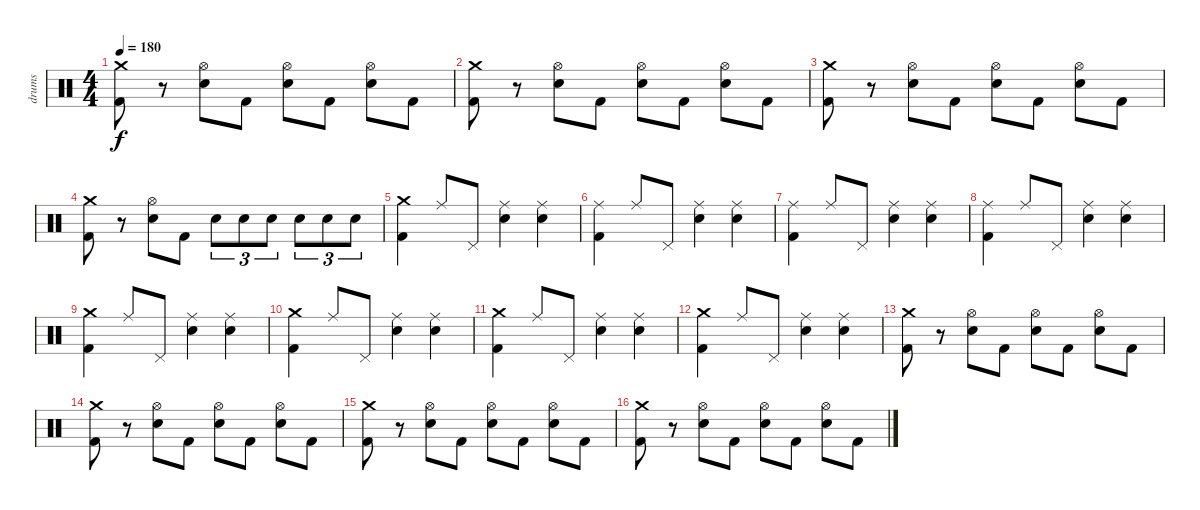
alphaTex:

\track ("drums" "drums") {instrument percussion}
\staff {score}
\articulation defaults
\ts (4 4)
\tempo 180
\clef neutral
\ks c
("Crash medium (hit)" "Kick (hit) 2").8{dy f} r.8 ("Hi-Hat (open)" "Snare (hit) 2").8 "Kick (hit) 2".8 ("Hi-Hat (open)" "Snare (hit) 2").8 "Kick (hit) 2".8 ("Hi-Hat (open)" "Snare (hit) 2").8 "Kick (hit) 2".8 |
("Crash medium (hit)" "Kick (hit) 2").8 r.8 ("Hi-Hat (open)" "Snare (hit) 2").8 "Kick (hit) 2".8 ("Hi-Hat (open)" "Snare (hit) 2").8 "Kick (hit) 2".8 ("Hi-Hat (open)" "Snare (hit) 2").8 "Kick (hit) 2".8 |
("Crash medium (hit)" "Kick (hit) 2").8 r.8 ("Hi-Hat (open)" "Snare (hit) 2").8 "Kick (hit) 2".8 ("Hi-Hat (open)" "Snare (hit) 2").8 "Kick (hit) 2".8 ("Hi-Hat (open)" "Snare (hit) 2").8 "Kick (hit) 2".8 |
("Crash medium (hit)" "Kick (hit) 2").8 r.8 ("Hi-Hat (open)" "Snare (hit) 2").8 "Kick (hit) 2".8 "Snare (hit) 2".8{tu (3 2)} "Snare (hit) 2".8{tu (3 2)} "Snare (hit) 2".8{tu (3 2)} "Snare (hit) 2".8{tu (3 2)} "Snare (hit) 2".8{tu (3 2)} "Snare (hit) 2".8{tu (3 2)} |
("Crash medium (hit)" "Kick (hit) 2").4 "Ride (middle)".8 "Pedal Hi-Hat (hit)".8 ("Ride (middle)" "Snare (hit) 2").4 ("Ride (middle)" "Snare (hit) 2").4 |
("Ride (middle)" "Kick (hit) 2").4 "Ride (middle)".8 "Pedal Hi-Hat (hit)".8 ("Ride (middle)" "Snare (hit) 2").4 ("Ride (middle)" "Snare (hit) 2").4 |
("Ride (middle)" "Kick (hit) 2").4 "Ride (middle)".8 "Pedal Hi-Hat (hit)".8 ("Ride (middle)" "Snare (hit) 2").4 ("Ride (middle)" "Snare (hit) 2").4 |
("Ride (middle)" "Kick (hit) 2").4 "Ride (middle)".8 "Pedal Hi-Hat (hit)".8 ("Ride (middle)" "Snare (hit) 2").4 ("Ride (middle)" "Snare (hit) 2").4 |
("Crash medium (hit)" "Kick (hit) 2").4 "Ride (middle)".8 "Pedal Hi-Hat (hit)".8 ("Ride (middle)" "Snare (hit) 2").4 ("Ride (middle)" "Snare (hit) 2").4 |
("Crash medium (hit)" "Kick (hit) 2").4 "Ride (middle)".8 "Pedal Hi-Hat (hit)".8 ("Ride (middle)" "Snare (hit) 2").4 ("Ride (middle)" "Snare (hit) 2").4 |
("Crash medium (hit)" "Kick (hit) 2").4 "Ride (middle)".8 "Pedal Hi-Hat (hit)".8 ("Ride (middle)" "Snare (hit) 2").4 ("Ride (middle)" "Snare (hit) 2").4 |
("Crash medium (hit)" "Kick (hit) 2").4 "Ride (middle)".8 "Pedal Hi-Hat (hit)".8 ("Ride (middle)" "Snare (hit) 2").4 ("Ride (middle)" "Snare (hit) 2").4 |
("Crash medium (hit)" "Kick (hit) 2").8 r.8 ("Hi-Hat (open)" "Snare (hit) 2").8 "Kick (hit) 2".8 ("Hi-Hat (open)" "Snare (hit) 2").8 "Kick (hit) 2".8 ("Hi-Hat (open)" "Snare (hit) 2").8 "Kick (hit) 2".8 |
("Crash medium (hit)" "Kick (hit) 2").8 r.8 ("Hi-Hat (open)" "Snare (hit) 2").8 "Kick (hit) 2".8 ("Hi-Hat (open)" "Snare (hit) 2").8 "Kick (hit) 2".8 ("Hi-Hat (open)" "Snare (hit) 2").8 "Kick (hit) 2".8 |
("Crash medium (hit)" "Kick (hit) 2").8 r.8 ("Hi-Hat (open)" "Snare (hit) 2").8 "Kick (hit) 2".8 ("Hi-Hat (open)" "Snare (hit) 2").8 "Kick (hit) 2".8 ("Hi-Hat (open)" "Snare (hit) 2").8 "Kick (hit) 2".8 |
("Crash medium (hit)" "Kick (hit) 2").8 r.8 ("Hi-Hat (open)" "Snare (hit) 2").8 "Kick (hit) 2".8 ("Hi-Hat (open)" "Snare (hit) 2").8 "Kick (hit) 2".8 ("Hi-Hat (open)" "Snare (hit) 2").8 "Kick (hit) 2".8
